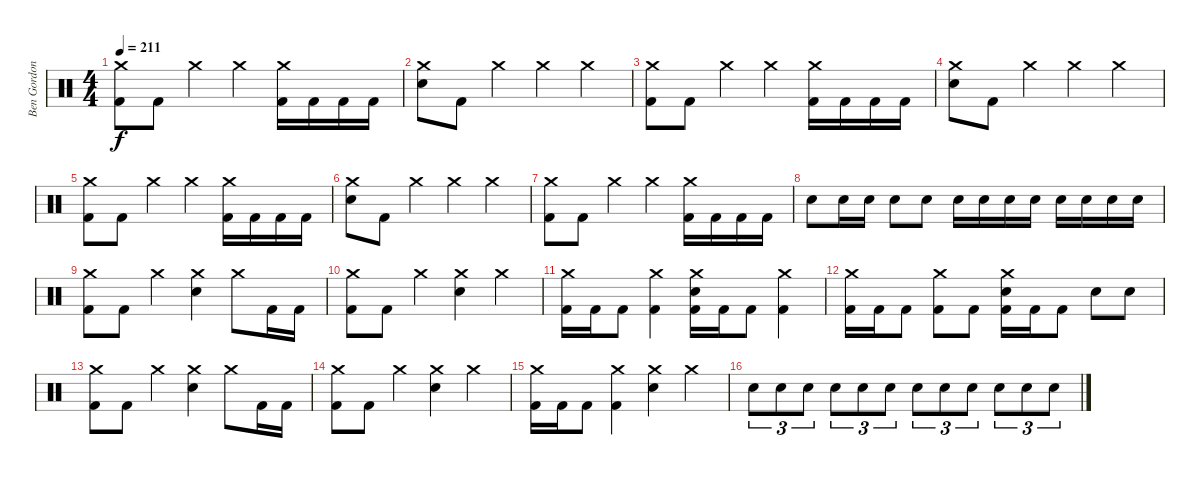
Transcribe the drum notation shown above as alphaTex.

\track ("Ben Gordon" "Ben Gordon") {instrument percussion}
\staff {score}
\articulation defaults
\ts (4 4)
\tempo 211
\clef neutral
\ks c
("Crash medium (hit)" "Kick (hit) 2").8{dy f} "Kick (hit) 2".8 "Crash medium (hit)".4 "Crash medium (hit)".4 ("Crash medium (hit)" "Kick (hit) 2").16 "Kick (hit) 2".16 "Kick (hit) 2".16 "Kick (hit) 2".16 |
("Crash medium (hit)" "Electric Snare (hit)").8 "Kick (hit) 2".8 "Crash medium (hit)".4 "Crash medium (hit)".4 "Crash medium (hit)".4 |
("Crash medium (hit)" "Kick (hit) 2").8 "Kick (hit) 2".8 "Crash medium (hit)".4 "Crash medium (hit)".4 ("Crash medium (hit)" "Kick (hit) 2").16 "Kick (hit) 2".16 "Kick (hit) 2".16 "Kick (hit) 2".16 |
("Crash medium (hit)" "Electric Snare (hit)").8 "Kick (hit) 2".8 "Crash medium (hit)".4 "Crash medium (hit)".4 "Crash medium (hit)".4 |
("Crash medium (hit)" "Kick (hit) 2").8 "Kick (hit) 2".8 "Crash medium (hit)".4 "Crash medium (hit)".4 ("Crash medium (hit)" "Kick (hit) 2").16 "Kick (hit) 2".16 "Kick (hit) 2".16 "Kick (hit) 2".16 |
("Crash medium (hit)" "Electric Snare (hit)").8 "Kick (hit) 2".8 "Crash medium (hit)".4 "Crash medium (hit)".4 "Crash medium (hit)".4 |
("Crash medium (hit)" "Kick (hit) 2").8 "Kick (hit) 2".8 "Crash medium (hit)".4 "Crash medium (hit)".4 ("Crash medium (hit)" "Kick (hit) 2").16 "Kick (hit) 2".16 "Kick (hit) 2".16 "Kick (hit) 2".16 |
"Electric Snare (hit)".8 "Electric Snare (hit)".16 "Electric Snare (hit)".16 "Electric Snare (hit)".8 "Electric Snare (hit)".8 "Electric Snare (hit)".16 "Electric Snare (hit)".16 "Electric Snare (hit)".16 "Electric Snare (hit)".16 "Electric Snare (hit)".16 "Electric Snare (hit)".16 "Electric Snare (hit)".16 "Electric Snare (hit)".16 |
("Crash medium (hit)" "Kick (hit) 2").8 "Kick (hit) 2".8 "Crash medium (hit)".4 ("Crash medium (hit)" "Electric Snare (hit)").4 "Crash medium (hit)".8 "Kick (hit) 2".16 "Kick (hit) 2".16 |
("Crash medium (hit)" "Kick (hit) 2").8 "Kick (hit) 2".8 "Crash medium (hit)".4 ("Crash medium (hit)" "Electric Snare (hit)").4 "Crash medium (hit)".4 |
("Crash medium (hit)" "Kick (hit) 2").16 "Kick (hit) 2".16 "Kick (hit) 2".8 ("Crash medium (hit)" "Kick (hit) 2").4 ("Crash medium (hit)" "Electric Snare (hit)" "Kick (hit) 2").16 "Kick (hit) 2".16 "Kick (hit) 2".8 ("Crash medium (hit)" "Kick (hit) 2").4 |
("Crash medium (hit)" "Kick (hit) 2").16 "Kick (hit) 2".16 "Kick (hit) 2".8 ("Crash medium (hit)" "Kick (hit) 2").8 "Kick (hit) 2".8 ("Crash medium (hit)" "Electric Snare (hit)" "Kick (hit) 2").16 "Kick (hit) 2".16 "Kick (hit) 2".8 "Electric Snare (hit)".8 "Electric Snare (hit)".8 |
("Crash medium (hit)" "Kick (hit) 2").8 "Kick (hit) 2".8 "Crash medium (hit)".4 ("Crash medium (hit)" "Electric Snare (hit)").4 "Crash medium (hit)".8 "Kick (hit) 2".16 "Kick (hit) 2".16 |
("Crash medium (hit)" "Kick (hit) 2").8 "Kick (hit) 2".8 "Crash medium (hit)".4 ("Crash medium (hit)" "Electric Snare (hit)").4 "Crash medium (hit)".4 |
("Crash medium (hit)" "Kick (hit) 2").16 "Kick (hit) 2".16 "Kick (hit) 2".8 ("Crash medium (hit)" "Kick (hit) 2").4 ("Crash medium (hit)" "Electric Snare (hit)").4 "Crash medium (hit)".4 |
"Electric Snare (hit)".8{tu (3 2)} "Electric Snare (hit)".8{tu (3 2)} "Electric Snare (hit)".8{tu (3 2)} "Electric Snare (hit)".8{tu (3 2)} "Electric Snare (hit)".8{tu (3 2)} "Electric Snare (hit)".8{tu (3 2)} "Electric Snare (hit)".8{tu (3 2)} "Electric Snare (hit)".8{tu (3 2)} "Electric Snare (hit)".8{tu (3 2)} "Electric Snare (hit)".8{tu (3 2)} "Electric Snare (hit)".8{tu (3 2)} "Electric Snare (hit)".8{tu (3 2)}
